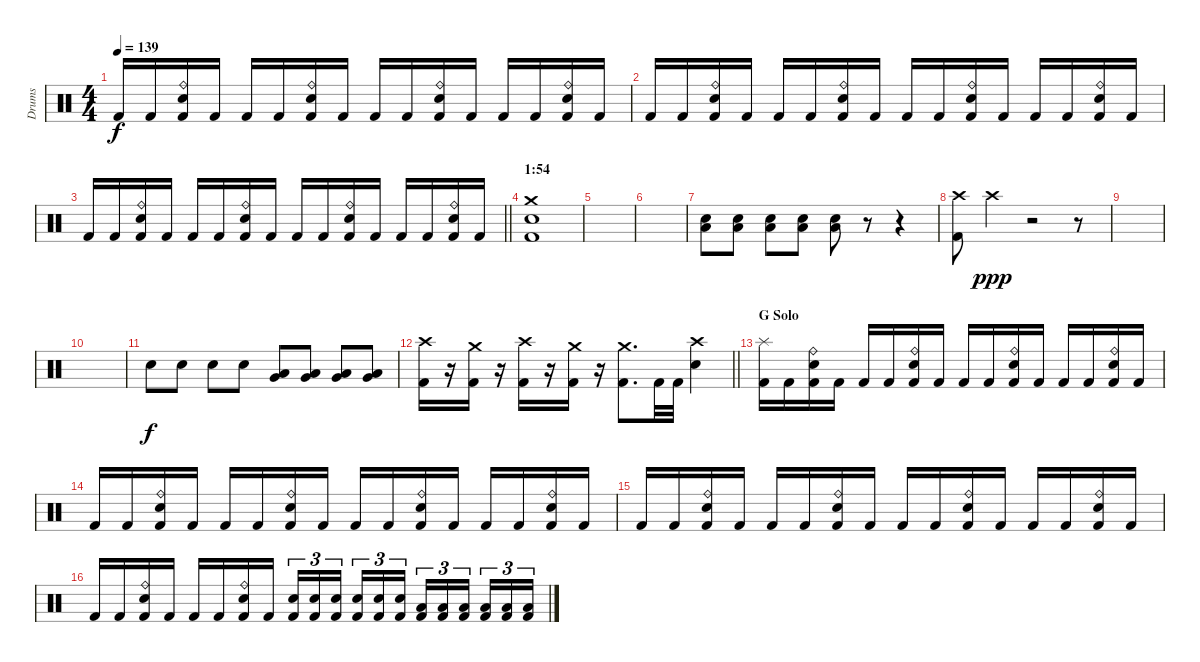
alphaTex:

\track ("Drums" "Drums") {instrument percussion}
\staff {score}
\articulation defaults
\ts (4 4)
\tempo 139
\clef neutral
\ks c "Kick (hit) 2".16{dy f} "Kick (hit) 2".16
("Ride (bell)" "Electric Snare (hit)" "Kick (hit) 2").16 "Kick (hit) 2".16 "Kick (hit) 2".16 "Kick (hit) 2".16 ("Ride (bell)" "Electric Snare (hit)" "Kick (hit) 2").16 "Kick (hit) 2".16 "Kick (hit) 2".16 "Kick (hit) 2".16 ("Ride (bell)" "Electric Snare (hit)" "Kick (hit) 2").16 "Kick (hit) 2".16 "Kick (hit) 2".16 "Kick (hit) 2".16 ("Ride (bell)" "Electric Snare (hit)" "Kick (hit) 2").16 "Kick (hit) 2".16 |
"Kick (hit) 2".16 "Kick (hit) 2".16 ("Ride (bell)" "Electric Snare (hit)" "Kick (hit) 2").16 "Kick (hit) 2".16 "Kick (hit) 2".16 "Kick (hit) 2".16 ("Ride (bell)" "Electric Snare (hit)" "Kick (hit) 2").16 "Kick (hit) 2".16 "Kick (hit) 2".16 "Kick (hit) 2".16 ("Ride (bell)" "Electric Snare (hit)" "Kick (hit) 2").16 "Kick (hit) 2".16 "Kick (hit) 2".16 "Kick (hit) 2".16 ("Ride (bell)" "Electric Snare (hit)" "Kick (hit) 2").16 "Kick (hit) 2".16 |
\barLineRight lightlight "Kick (hit) 2".16 "Kick (hit) 2".16
("Ride (bell)" "Electric Snare (hit)" "Kick (hit) 2").16 "Kick (hit) 2".16 "Kick (hit) 2".16 "Kick (hit) 2".16 ("Ride (bell)" "Electric Snare (hit)" "Kick (hit) 2").16 "Kick (hit) 2".16 "Kick (hit) 2".16 "Kick (hit) 2".16 ("Ride (bell)" "Electric Snare (hit)" "Kick (hit) 2").16 "Kick (hit) 2".16 "Kick (hit) 2".16 "Kick (hit) 2".16 ("Ride (bell)" "Electric Snare (hit)" "Kick (hit) 2").16 "Kick (hit) 2".16 |
\section ("" "1:54")
("Crash medium (hit)" "Electric Snare (hit)" "Kick (hit) 2").1 |
|
|
("Low Tom (hit)" "Electric Snare (hit)").8 ("Low Tom (hit)" "Electric Snare (hit)").8 ("Low Tom (hit)" "Electric Snare (hit)").8 ("Low Tom (hit)" "Electric Snare (hit)").8 ("Low Tom (hit)" "Electric Snare (hit)").8 r.8 r.4 |
("Crash high (hit)" "Kick (hit) 2").8 "Crash high (hit)".4{dy ppp} r.2 r.8 |
|
|
"Snare (hit) 2".8{dy f} "Snare (hit) 2".8 "Snare (hit) 2".8 "Snare (hit) 2".8 ("Very Low Tom (hit)" "Low Tom (hit)").8 ("Very Low Tom (hit)" "Low Tom (hit)").8 ("Very Low Tom (hit)" "Low Tom (hit)").8 ("Very Low Tom (hit)" "Low Tom (hit)").8 |
\barLineRight lightlight
("Crash high (hit)" "Kick (hit) 2").16 r.16 ("Crash medium (hit)" "Kick (hit) 2").16 r.16 ("Crash high (hit)" "Kick (hit) 2").16 r.16 ("Crash medium (hit)" "Kick (hit) 2").16 r.16 ("Crash medium (hit)" "Kick (hit) 2").8{d} "Kick (hit) 2".32 "Kick (hit) 2".32 ("Snare (hit) 2" "Crash high (hit)").4 |
\section ("" "G Solo")
("Splash (hit)" "Kick (hit) 2").16 "Kick (hit) 2".16 ("Ride (bell)" "Electric Snare (hit)" "Kick (hit) 2").16 "Kick (hit) 2".16 "Kick (hit) 2".16 "Kick (hit) 2".16 ("Ride (bell)" "Electric Snare (hit)" "Kick (hit) 2").16 "Kick (hit) 2".16 "Kick (hit) 2".16 "Kick (hit) 2".16 ("Ride (bell)" "Electric Snare (hit)" "Kick (hit) 2").16 "Kick (hit) 2".16 "Kick (hit) 2".16 "Kick (hit) 2".16 ("Ride (bell)" "Electric Snare (hit)" "Kick (hit) 2").16 "Kick (hit) 2".16 |
"Kick (hit) 2".16 "Kick (hit) 2".16 ("Ride (bell)" "Electric Snare (hit)" "Kick (hit) 2").16 "Kick (hit) 2".16 "Kick (hit) 2".16 "Kick (hit) 2".16 ("Ride (bell)" "Electric Snare (hit)" "Kick (hit) 2").16 "Kick (hit) 2".16 "Kick (hit) 2".16 "Kick (hit) 2".16 ("Ride (bell)" "Electric Snare (hit)" "Kick (hit) 2").16 "Kick (hit) 2".16 "Kick (hit) 2".16 "Kick (hit) 2".16 ("Ride (bell)" "Electric Snare (hit)" "Kick (hit) 2").16 "Kick (hit) 2".16 |
"Kick (hit) 2".16 "Kick (hit) 2".16 ("Ride (bell)" "Electric Snare (hit)" "Kick (hit) 2").16 "Kick (hit) 2".16 "Kick (hit) 2".16 "Kick (hit) 2".16 ("Ride (bell)" "Electric Snare (hit)" "Kick (hit) 2").16 "Kick (hit) 2".16 "Kick (hit) 2".16 "Kick (hit) 2".16 ("Ride (bell)" "Electric Snare (hit)" "Kick (hit) 2").16 "Kick (hit) 2".16 "Kick (hit) 2".16 "Kick (hit) 2".16 ("Ride (bell)" "Electric Snare (hit)" "Kick (hit) 2").16 "Kick (hit) 2".16 |
"Kick (hit) 2".16 "Kick (hit) 2".16 ("Ride (bell)" "Electric Snare (hit)" "Kick (hit) 2").16 "Kick (hit) 2".16 "Kick (hit) 2".16 "Kick (hit) 2".16 ("Ride (bell)" "Electric Snare (hit)" "Kick (hit) 2").16 "Kick (hit) 2".16 ("Electric Snare (hit)" "Kick (hit) 2").16{tu (3 2)} ("Electric Snare (hit)" "Kick (hit) 2").16{tu (3 2)} ("Electric Snare (hit)" "Kick (hit) 2").16{tu (3 2) beam splitsecondary} ("Electric Snare (hit)" "Kick (hit) 2").16{tu (3 2)} ("Electric Snare (hit)" "Kick (hit) 2").16{tu (3 2)} ("Electric Snare (hit)" "Kick (hit) 2").16{tu (3 2)} ("Low Tom (hit)" "Kick (hit) 2").16{tu (3 2)} ("Low Tom (hit)" "Kick (hit) 2").16{tu (3 2)} ("Low Tom (hit)" "Kick (hit) 2").16{tu (3 2) beam splitsecondary} ("Low Tom (hit)" "Kick (hit) 2").16{tu (3 2)} ("Low Tom (hit)" "Kick (hit) 2").16{tu (3 2)} ("Low Tom (hit)" "Kick (hit) 2").16{tu (3 2)}
